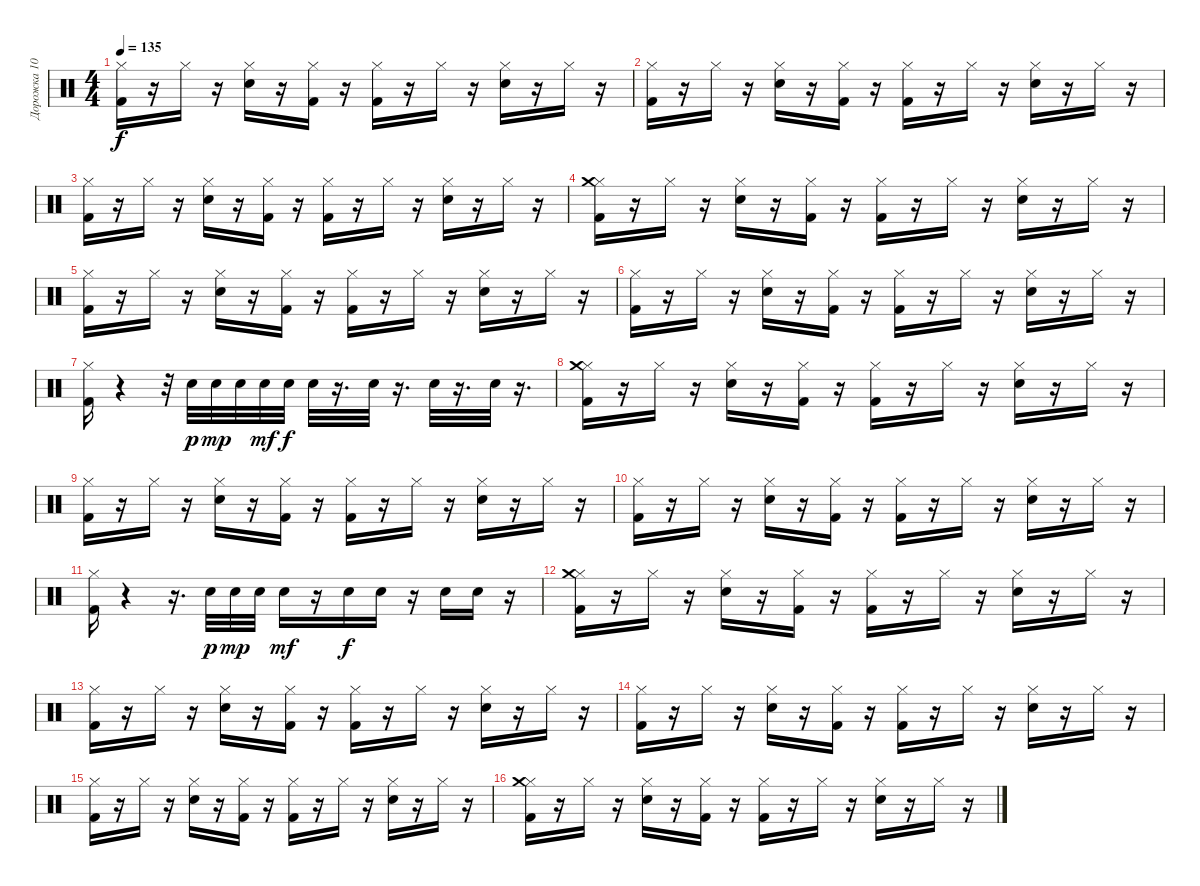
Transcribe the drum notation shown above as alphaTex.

\track ("Дорожка 10" "Дорожка 10") {instrument percussion}
\staff {score}
\articulation defaults
\ts (4 4)
\tempo 135
\clef neutral
\ks c
("Hi-Hat (closed)" "Kick (hit) 2").16{dy f} r.16 "Hi-Hat (closed)".16 r.16 ("Hi-Hat (closed)" "Electric Snare (hit)").16 r.16 ("Hi-Hat (closed)" "Kick (hit) 2").16 r.16 ("Hi-Hat (closed)" "Kick (hit) 2").16 r.16 "Hi-Hat (closed)".16 r.16 ("Hi-Hat (closed)" "Electric Snare (hit)").16 r.16 "Hi-Hat (closed)".16 r.16 |
("Hi-Hat (closed)" "Kick (hit) 2").16 r.16 "Hi-Hat (closed)".16 r.16 ("Hi-Hat (closed)" "Electric Snare (hit)").16 r.16 ("Hi-Hat (closed)" "Kick (hit) 2").16 r.16 ("Hi-Hat (closed)" "Kick (hit) 2").16 r.16 "Hi-Hat (closed)".16 r.16 ("Hi-Hat (closed)" "Electric Snare (hit)").16 r.16 "Hi-Hat (closed)".16 r.16 |
("Hi-Hat (closed)" "Kick (hit) 2").16 r.16 "Hi-Hat (closed)".16 r.16 ("Hi-Hat (closed)" "Electric Snare (hit)").16 r.16 ("Hi-Hat (closed)" "Kick (hit) 2").16 r.16 ("Hi-Hat (closed)" "Kick (hit) 2").16 r.16 "Hi-Hat (closed)".16 r.16 ("Hi-Hat (closed)" "Electric Snare (hit)").16 r.16 "Hi-Hat (closed)".16 r.16 |
("Hi-Hat (closed)" "Crash medium (hit)" "Kick (hit) 2").16 r.16 "Hi-Hat (closed)".16 r.16 ("Hi-Hat (closed)" "Electric Snare (hit)").16 r.16 ("Hi-Hat (closed)" "Kick (hit) 2").16 r.16 ("Hi-Hat (closed)" "Kick (hit) 2").16 r.16 "Hi-Hat (closed)".16 r.16 ("Hi-Hat (closed)" "Electric Snare (hit)").16 r.16 "Hi-Hat (closed)".16 r.16 |
("Hi-Hat (closed)" "Kick (hit) 2").16 r.16 "Hi-Hat (closed)".16 r.16 ("Hi-Hat (closed)" "Electric Snare (hit)").16 r.16 ("Hi-Hat (closed)" "Kick (hit) 2").16 r.16 ("Hi-Hat (closed)" "Kick (hit) 2").16 r.16 "Hi-Hat (closed)".16 r.16 ("Hi-Hat (closed)" "Electric Snare (hit)").16 r.16 "Hi-Hat (closed)".16 r.16 |
("Hi-Hat (closed)" "Kick (hit) 2").16 r.16 "Hi-Hat (closed)".16 r.16 ("Hi-Hat (closed)" "Electric Snare (hit)").16 r.16 ("Hi-Hat (closed)" "Kick (hit) 2").16 r.16 ("Hi-Hat (closed)" "Kick (hit) 2").16 r.16 "Hi-Hat (closed)".16 r.16 ("Hi-Hat (closed)" "Electric Snare (hit)").16 r.16 "Hi-Hat (closed)".16 r.16 |
("Hi-Hat (closed)" "Kick (hit) 2").16 r.4 r.32 "Electric Snare (hit)".32{dy p} "Electric Snare (hit)".32{dy mp} "Electric Snare (hit)".32 "Electric Snare (hit)".32{dy mf} "Electric Snare (hit)".32{dy f} "Electric Snare (hit)".32 r.16{d} "Electric Snare (hit)".32 r.16{d} "Electric Snare (hit)".32 r.16{d} "Electric Snare (hit)".32 r.16{d} |
("Hi-Hat (closed)" "Crash medium (hit)" "Kick (hit) 2").16 r.16 "Hi-Hat (closed)".16 r.16 ("Hi-Hat (closed)" "Electric Snare (hit)").16 r.16 ("Hi-Hat (closed)" "Kick (hit) 2").16 r.16 ("Hi-Hat (closed)" "Kick (hit) 2").16 r.16 "Hi-Hat (closed)".16 r.16 ("Hi-Hat (closed)" "Electric Snare (hit)").16 r.16 "Hi-Hat (closed)".16 r.16 |
("Hi-Hat (closed)" "Kick (hit) 2").16 r.16 "Hi-Hat (closed)".16 r.16 ("Hi-Hat (closed)" "Electric Snare (hit)").16 r.16 ("Hi-Hat (closed)" "Kick (hit) 2").16 r.16 ("Hi-Hat (closed)" "Kick (hit) 2").16 r.16 "Hi-Hat (closed)".16 r.16 ("Hi-Hat (closed)" "Electric Snare (hit)").16 r.16 "Hi-Hat (closed)".16 r.16 |
("Hi-Hat (closed)" "Kick (hit) 2").16 r.16 "Hi-Hat (closed)".16 r.16 ("Hi-Hat (closed)" "Electric Snare (hit)").16 r.16 ("Hi-Hat (closed)" "Kick (hit) 2").16 r.16 ("Hi-Hat (closed)" "Kick (hit) 2").16 r.16 "Hi-Hat (closed)".16 r.16 ("Hi-Hat (closed)" "Electric Snare (hit)").16 r.16 "Hi-Hat (closed)".16 r.16 |
("Hi-Hat (closed)" "Kick (hit) 2").16 r.4 r.16{d} "Electric Snare (hit)".32{dy p} "Electric Snare (hit)".32{dy mp} "Electric Snare (hit)".32 "Electric Snare (hit)".16{dy mf} r.16 "Electric Snare (hit)".16{dy f} "Electric Snare (hit)".16 r.16 "Electric Snare (hit)".16 "Electric Snare (hit)".16 r.16 |
("Hi-Hat (closed)" "Crash medium (hit)" "Kick (hit) 2").16 r.16 "Hi-Hat (closed)".16 r.16 ("Hi-Hat (closed)" "Electric Snare (hit)").16 r.16 ("Hi-Hat (closed)" "Kick (hit) 2").16 r.16 ("Hi-Hat (closed)" "Kick (hit) 2").16 r.16 "Hi-Hat (closed)".16 r.16 ("Hi-Hat (closed)" "Electric Snare (hit)").16 r.16 "Hi-Hat (closed)".16 r.16 |
("Hi-Hat (closed)" "Kick (hit) 2").16 r.16 "Hi-Hat (closed)".16 r.16 ("Hi-Hat (closed)" "Electric Snare (hit)").16 r.16 ("Hi-Hat (closed)" "Kick (hit) 2").16 r.16 ("Hi-Hat (closed)" "Kick (hit) 2").16 r.16 "Hi-Hat (closed)".16 r.16 ("Hi-Hat (closed)" "Electric Snare (hit)").16 r.16 "Hi-Hat (closed)".16 r.16 |
("Hi-Hat (closed)" "Kick (hit) 2").16 r.16 "Hi-Hat (closed)".16 r.16 ("Hi-Hat (closed)" "Electric Snare (hit)").16 r.16 ("Hi-Hat (closed)" "Kick (hit) 2").16 r.16 ("Hi-Hat (closed)" "Kick (hit) 2").16 r.16 "Hi-Hat (closed)".16 r.16 ("Hi-Hat (closed)" "Electric Snare (hit)").16 r.16 "Hi-Hat (closed)".16 r.16 |
("Hi-Hat (closed)" "Kick (hit) 2").16 r.16 "Hi-Hat (closed)".16 r.16 ("Hi-Hat (closed)" "Electric Snare (hit)").16 r.16 ("Hi-Hat (closed)" "Kick (hit) 2").16 r.16 ("Hi-Hat (closed)" "Kick (hit) 2").16 r.16 "Hi-Hat (closed)".16 r.16 ("Hi-Hat (closed)" "Electric Snare (hit)").16 r.16 "Hi-Hat (closed)".16 r.16 |
("Hi-Hat (closed)" "Crash medium (hit)" "Kick (hit) 2").16 r.16 "Hi-Hat (closed)".16 r.16 ("Hi-Hat (closed)" "Electric Snare (hit)").16 r.16 ("Hi-Hat (closed)" "Kick (hit) 2").16 r.16 ("Hi-Hat (closed)" "Kick (hit) 2").16 r.16 "Hi-Hat (closed)".16 r.16 ("Hi-Hat (closed)" "Electric Snare (hit)").16 r.16 "Hi-Hat (closed)".16 r.16
